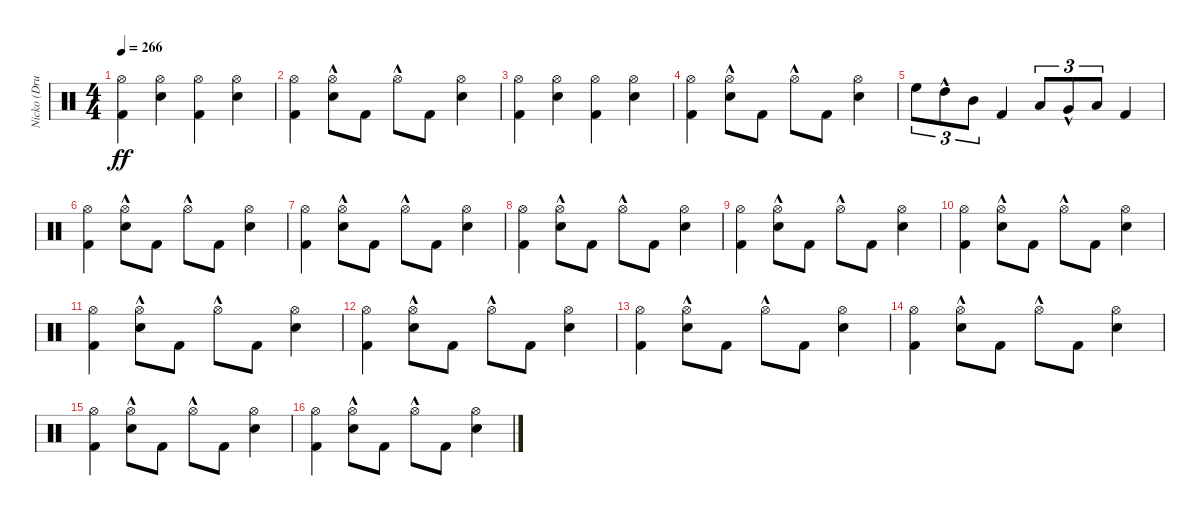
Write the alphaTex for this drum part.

\track ("Nicko (Drums)" "Nicko (Dru") {instrument percussion}
\staff {score}
\articulation defaults
\ts (4 4)
\tempo 266
\clef neutral
\ks c
("Kick (hit) 2" "Hi-Hat (open)").4{dy ff} ("Snare (hit) 2" "Hi-Hat (open)").4 ("Kick (hit) 2" "Hi-Hat (open)").4 ("Snare (hit) 2" "Hi-Hat (open)").4 |
("Kick (hit) 2" "Hi-Hat (open)").4 ("Snare (hit) 2" "Hi-Hat (open)"{hac}).8 "Kick (hit) 2".8 "Hi-Hat (open)"{hac}.8 "Kick (hit) 2".8 ("Snare (hit) 2" "Hi-Hat (open)").4 |
("Kick (hit) 2" "Hi-Hat (open)").4 ("Snare (hit) 2" "Hi-Hat (open)").4 ("Kick (hit) 2" "Hi-Hat (open)").4 ("Snare (hit) 2" "Hi-Hat (open)").4 |
("Kick (hit) 2" "Hi-Hat (open)").4 ("Snare (hit) 2" "Hi-Hat (open)"{hac}).8 "Kick (hit) 2".8 "Hi-Hat (open)"{hac}.8 "Kick (hit) 2".8 ("Snare (hit) 2" "Hi-Hat (open)").4 |
"High Floor Tom (hit)".8{tu (3 2)} "High Tom (hit)"{hac}.8{tu (3 2)} "Mid Tom (hit)".8{tu (3 2)} "Kick (hit) 2".4 "Low Tom (hit)".8{tu (3 2)} "Very Low Tom (hit)"{hac}.8{tu (3 2)} "Low Floor Tom (hit)".8{tu (3 2)} "Kick (hit) 2".4 |
("Kick (hit) 2" "Hi-Hat (open)").4 ("Snare (hit) 2" "Hi-Hat (open)"{hac}).8 "Kick (hit) 2".8 "Hi-Hat (open)"{hac}.8 "Kick (hit) 2".8 ("Snare (hit) 2" "Hi-Hat (open)").4 |
("Kick (hit) 2" "Hi-Hat (open)").4 ("Snare (hit) 2" "Hi-Hat (open)"{hac}).8 "Kick (hit) 2".8 "Hi-Hat (open)"{hac}.8 "Kick (hit) 2".8 ("Snare (hit) 2" "Hi-Hat (open)").4 |
("Kick (hit) 2" "Hi-Hat (open)").4 ("Snare (hit) 2" "Hi-Hat (open)"{hac}).8 "Kick (hit) 2".8 "Hi-Hat (open)"{hac}.8 "Kick (hit) 2".8 ("Snare (hit) 2" "Hi-Hat (open)").4 |
("Kick (hit) 2" "Hi-Hat (open)").4 ("Snare (hit) 2" "Hi-Hat (open)"{hac}).8 "Kick (hit) 2".8 "Hi-Hat (open)"{hac}.8 "Kick (hit) 2".8 ("Snare (hit) 2" "Hi-Hat (open)").4 |
("Kick (hit) 2" "Hi-Hat (open)").4 ("Snare (hit) 2" "Hi-Hat (open)"{hac}).8 "Kick (hit) 2".8 "Hi-Hat (open)"{hac}.8 "Kick (hit) 2".8 ("Snare (hit) 2" "Hi-Hat (open)").4 |
("Kick (hit) 2" "Hi-Hat (open)").4 ("Snare (hit) 2" "Hi-Hat (open)"{hac}).8 "Kick (hit) 2".8 "Hi-Hat (open)"{hac}.8 "Kick (hit) 2".8 ("Snare (hit) 2" "Hi-Hat (open)").4 |
("Kick (hit) 2" "Hi-Hat (open)").4 ("Snare (hit) 2" "Hi-Hat (open)"{hac}).8 "Kick (hit) 2".8 "Hi-Hat (open)"{hac}.8 "Kick (hit) 2".8 ("Snare (hit) 2" "Hi-Hat (open)").4 |
("Kick (hit) 2" "Hi-Hat (open)").4 ("Snare (hit) 2" "Hi-Hat (open)"{hac}).8 "Kick (hit) 2".8 "Hi-Hat (open)"{hac}.8 "Kick (hit) 2".8 ("Snare (hit) 2" "Hi-Hat (open)").4 |
("Kick (hit) 2" "Hi-Hat (open)").4 ("Snare (hit) 2" "Hi-Hat (open)"{hac}).8 "Kick (hit) 2".8 "Hi-Hat (open)"{hac}.8 "Kick (hit) 2".8 ("Snare (hit) 2" "Hi-Hat (open)").4 |
("Kick (hit) 2" "Hi-Hat (open)").4 ("Snare (hit) 2" "Hi-Hat (open)"{hac}).8 "Kick (hit) 2".8 "Hi-Hat (open)"{hac}.8 "Kick (hit) 2".8 ("Snare (hit) 2" "Hi-Hat (open)").4 |
("Kick (hit) 2" "Hi-Hat (open)").4 ("Snare (hit) 2" "Hi-Hat (open)"{hac}).8 "Kick (hit) 2".8 "Hi-Hat (open)"{hac}.8 "Kick (hit) 2".8 ("Snare (hit) 2" "Hi-Hat (open)").4
